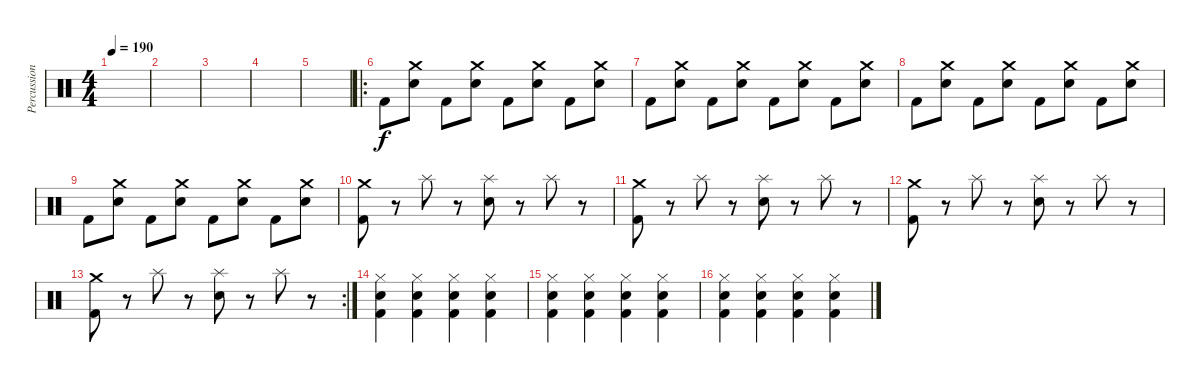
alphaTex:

\track ("Percussion" "Percussion") {instrument percussion}
\staff {score}
\articulation defaults
\ts (4 4)
\tempo 190
\clef neutral
\ks c
|
|
|
|
|
\ro "Kick (hit) 2".8
("Crash medium (hit)" "Electric Snare (hit)").8 "Kick (hit) 2".8 ("Crash medium (hit)" "Electric Snare (hit)").8 "Kick (hit) 2".8 ("Crash medium (hit)" "Electric Snare (hit)").8 "Kick (hit) 2".8 ("Crash medium (hit)" "Electric Snare (hit)").8 |
"Kick (hit) 2".8 ("Crash medium (hit)" "Electric Snare (hit)").8 "Kick (hit) 2".8 ("Crash medium (hit)" "Electric Snare (hit)").8 "Kick (hit) 2".8 ("Crash medium (hit)" "Electric Snare (hit)").8 "Kick (hit) 2".8 ("Crash medium (hit)" "Electric Snare (hit)").8 |
"Kick (hit) 2".8 ("Crash medium (hit)" "Electric Snare (hit)").8 "Kick (hit) 2".8 ("Crash medium (hit)" "Electric Snare (hit)").8 "Kick (hit) 2".8 ("Crash medium (hit)" "Electric Snare (hit)").8 "Kick (hit) 2".8 ("Crash medium (hit)" "Electric Snare (hit)").8 |
"Kick (hit) 2".8 ("Crash medium (hit)" "Electric Snare (hit)").8 "Kick (hit) 2".8 ("Crash medium (hit)" "Electric Snare (hit)").8 "Kick (hit) 2".8 ("Crash medium (hit)" "Electric Snare (hit)").8 "Kick (hit) 2".8 ("Crash medium (hit)" "Electric Snare (hit)").8 |
("Crash medium (hit)" "Kick (hit) 2").8 r.8 "Splash (hit)".8 r.8 ("Splash (hit)" "Electric Snare (hit)").8 r.8 "Splash (hit)".8 r.8 |
("Crash medium (hit)" "Kick (hit) 2").8 r.8 "Splash (hit)".8 r.8 ("Splash (hit)" "Electric Snare (hit)").8 r.8 "Splash (hit)".8 r.8 |
("Crash medium (hit)" "Kick (hit) 2").8 r.8 "Splash (hit)".8 r.8 ("Splash (hit)" "Electric Snare (hit)").8 r.8 "Splash (hit)".8 r.8 |
\rc 2
("Crash medium (hit)" "Kick (hit) 2").8 r.8 "Splash (hit)".8 r.8 ("Splash (hit)" "Electric Snare (hit)").8 r.8 "Splash (hit)".8 r.8 |
("Hi-Hat (closed)" "Electric Snare (hit)" "Kick (hit) 2").4 ("Hi-Hat (closed)" "Electric Snare (hit)" "Kick (hit) 2").4 ("Hi-Hat (closed)" "Electric Snare (hit)" "Kick (hit) 2").4 ("Hi-Hat (closed)" "Electric Snare (hit)" "Kick (hit) 2").4 |
("Hi-Hat (closed)" "Electric Snare (hit)" "Kick (hit) 2").4 ("Hi-Hat (closed)" "Electric Snare (hit)" "Kick (hit) 2").4 ("Hi-Hat (closed)" "Electric Snare (hit)" "Kick (hit) 2").4 ("Hi-Hat (closed)" "Electric Snare (hit)" "Kick (hit) 2").4 |
("Hi-Hat (closed)" "Electric Snare (hit)" "Kick (hit) 2").4 ("Hi-Hat (closed)" "Electric Snare (hit)" "Kick (hit) 2").4 ("Hi-Hat (closed)" "Electric Snare (hit)" "Kick (hit) 2").4 ("Hi-Hat (closed)" "Electric Snare (hit)" "Kick (hit) 2").4
